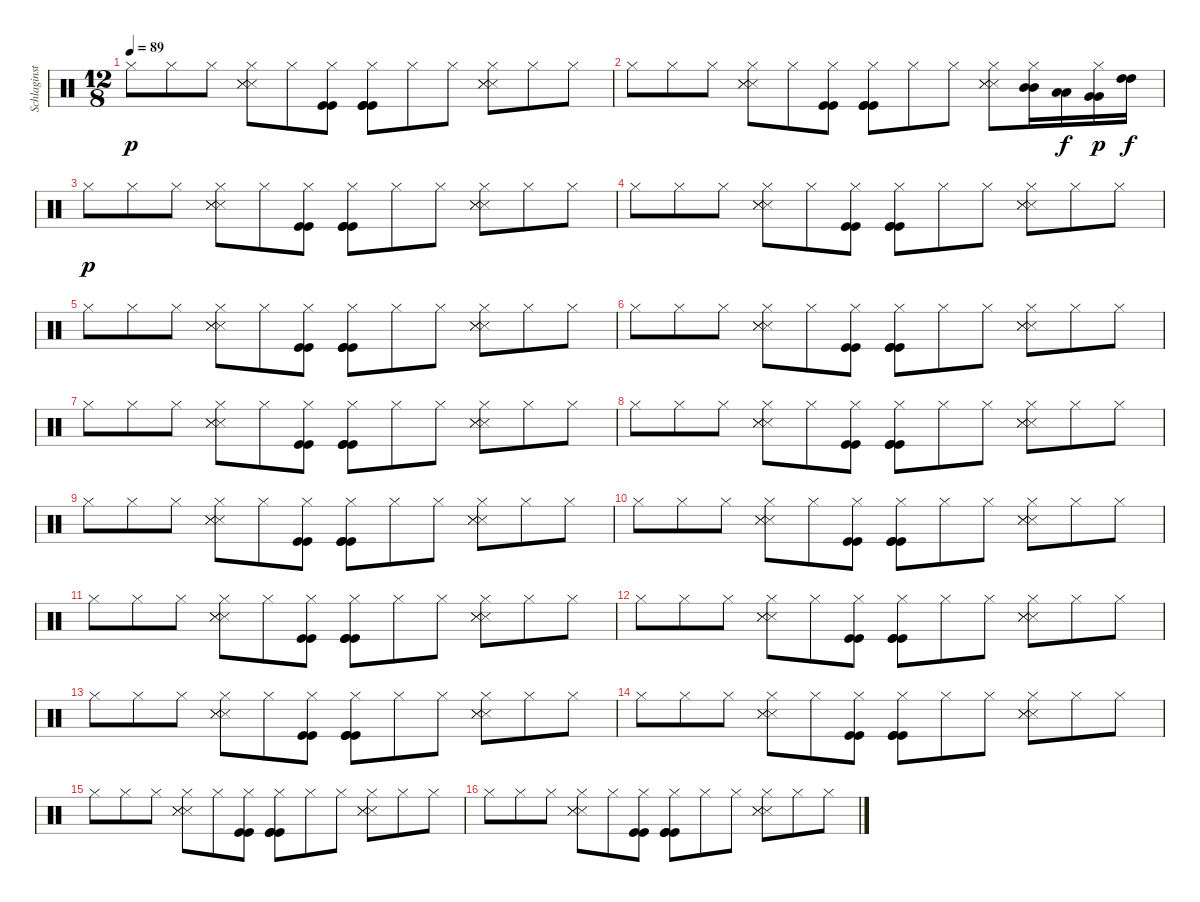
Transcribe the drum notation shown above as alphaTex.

\track ("Schlaginstrumente - Auswahl" "Schlaginst") {instrument percussion}
\staff {score}
\articulation defaults
\ts (12 8)
\tempo 89
\clef neutral
\ks c "Hi-Hat (closed)".8{dy p} "Hi-Hat (closed)".8 "Hi-Hat (closed)".8
("Hi-Hat (closed)" "Snare (side stick) 3" "Snare (side stick) 3" "Snare (side stick) 3").8 "Hi-Hat (closed)".8 ("Hi-Hat (closed)" "Kick (hit)" "Kick (hit)").8 ("Hi-Hat (closed)" "Kick (hit)" "Kick (hit)" "Kick (hit)").8 "Hi-Hat (closed)".8 "Hi-Hat (closed)".8 ("Hi-Hat (closed)" "Snare (side stick) 3" "Snare (side stick) 3" "Snare (side stick) 3").8 "Hi-Hat (closed)".8 "Hi-Hat (closed)".8 |
"Hi-Hat (closed)".8 "Hi-Hat (closed)".8 "Hi-Hat (closed)".8 ("Hi-Hat (closed)" "Snare (side stick) 3" "Snare (side stick) 3" "Snare (side stick) 3").8 "Hi-Hat (closed)".8 ("Hi-Hat (closed)" "Kick (hit)" "Kick (hit)").8 ("Hi-Hat (closed)" "Kick (hit)" "Kick (hit)" "Kick (hit)").8 "Hi-Hat (closed)".8 "Hi-Hat (closed)".8 ("Hi-Hat (closed)" "Snare (side stick) 3" "Snare (side stick) 3" "Snare (side stick) 3").8 ("Hi-Hat (closed)" "Mid Tom (hit)" "Mid Tom (hit)").16 ("Low Tom (hit)" "Low Tom (hit)").16{dy f} ("Hi-Hat (closed)" "Very Low Tom (hit)" "Very Low Tom (hit)").16{dy p} ("High Tom (hit)" "High Tom (hit)").16{dy f} |
"Hi-Hat (closed)".8{dy p} "Hi-Hat (closed)".8 "Hi-Hat (closed)".8 ("Hi-Hat (closed)" "Snare (side stick) 3" "Snare (side stick) 3" "Snare (side stick) 3").8 "Hi-Hat (closed)".8 ("Hi-Hat (closed)" "Kick (hit)" "Kick (hit)").8 ("Hi-Hat (closed)" "Kick (hit)" "Kick (hit)" "Kick (hit)").8 "Hi-Hat (closed)".8 "Hi-Hat (closed)".8 ("Hi-Hat (closed)" "Snare (side stick) 3" "Snare (side stick) 3" "Snare (side stick) 3").8 "Hi-Hat (closed)".8 "Hi-Hat (closed)".8 |
"Hi-Hat (closed)".8 "Hi-Hat (closed)".8 "Hi-Hat (closed)".8 ("Hi-Hat (closed)" "Snare (side stick) 3" "Snare (side stick) 3" "Snare (side stick) 3").8 "Hi-Hat (closed)".8 ("Hi-Hat (closed)" "Kick (hit)" "Kick (hit)").8 ("Hi-Hat (closed)" "Kick (hit)" "Kick (hit)" "Kick (hit)").8 "Hi-Hat (closed)".8 "Hi-Hat (closed)".8 ("Hi-Hat (closed)" "Snare (side stick) 3" "Snare (side stick) 3" "Snare (side stick) 3").8 "Hi-Hat (closed)".8 "Hi-Hat (closed)".8 |
"Hi-Hat (closed)".8 "Hi-Hat (closed)".8 "Hi-Hat (closed)".8 ("Hi-Hat (closed)" "Snare (side stick) 3" "Snare (side stick) 3" "Snare (side stick) 3").8 "Hi-Hat (closed)".8 ("Hi-Hat (closed)" "Kick (hit)" "Kick (hit)").8 ("Hi-Hat (closed)" "Kick (hit)" "Kick (hit)" "Kick (hit)").8 "Hi-Hat (closed)".8 "Hi-Hat (closed)".8 ("Hi-Hat (closed)" "Snare (side stick) 3" "Snare (side stick) 3" "Snare (side stick) 3").8 "Hi-Hat (closed)".8 "Hi-Hat (closed)".8 |
"Hi-Hat (closed)".8 "Hi-Hat (closed)".8 "Hi-Hat (closed)".8 ("Hi-Hat (closed)" "Snare (side stick) 3" "Snare (side stick) 3" "Snare (side stick) 3").8 "Hi-Hat (closed)".8 ("Hi-Hat (closed)" "Kick (hit)" "Kick (hit)").8 ("Hi-Hat (closed)" "Kick (hit)" "Kick (hit)" "Kick (hit)").8 "Hi-Hat (closed)".8 "Hi-Hat (closed)".8 ("Hi-Hat (closed)" "Snare (side stick) 3" "Snare (side stick) 3" "Snare (side stick) 3").8 "Hi-Hat (closed)".8 "Hi-Hat (closed)".8 |
"Hi-Hat (closed)".8 "Hi-Hat (closed)".8 "Hi-Hat (closed)".8 ("Hi-Hat (closed)" "Snare (side stick) 3" "Snare (side stick) 3" "Snare (side stick) 3").8 "Hi-Hat (closed)".8 ("Hi-Hat (closed)" "Kick (hit)" "Kick (hit)").8 ("Hi-Hat (closed)" "Kick (hit)" "Kick (hit)" "Kick (hit)").8 "Hi-Hat (closed)".8 "Hi-Hat (closed)".8 ("Hi-Hat (closed)" "Snare (side stick) 3" "Snare (side stick) 3" "Snare (side stick) 3").8 "Hi-Hat (closed)".8 "Hi-Hat (closed)".8 |
"Hi-Hat (closed)".8 "Hi-Hat (closed)".8 "Hi-Hat (closed)".8 ("Hi-Hat (closed)" "Snare (side stick) 3" "Snare (side stick) 3" "Snare (side stick) 3").8 "Hi-Hat (closed)".8 ("Hi-Hat (closed)" "Kick (hit)" "Kick (hit)").8 ("Hi-Hat (closed)" "Kick (hit)" "Kick (hit)" "Kick (hit)").8 "Hi-Hat (closed)".8 "Hi-Hat (closed)".8 ("Hi-Hat (closed)" "Snare (side stick) 3" "Snare (side stick) 3" "Snare (side stick) 3").8 "Hi-Hat (closed)".8 "Hi-Hat (closed)".8 |
"Hi-Hat (closed)".8 "Hi-Hat (closed)".8 "Hi-Hat (closed)".8 ("Hi-Hat (closed)" "Snare (side stick) 3" "Snare (side stick) 3" "Snare (side stick) 3").8 "Hi-Hat (closed)".8 ("Hi-Hat (closed)" "Kick (hit)" "Kick (hit)").8 ("Hi-Hat (closed)" "Kick (hit)" "Kick (hit)" "Kick (hit)").8 "Hi-Hat (closed)".8 "Hi-Hat (closed)".8 ("Hi-Hat (closed)" "Snare (side stick) 3" "Snare (side stick) 3" "Snare (side stick) 3").8 "Hi-Hat (closed)".8 "Hi-Hat (closed)".8 |
"Hi-Hat (closed)".8 "Hi-Hat (closed)".8 "Hi-Hat (closed)".8 ("Hi-Hat (closed)" "Snare (side stick) 3" "Snare (side stick) 3" "Snare (side stick) 3").8 "Hi-Hat (closed)".8 ("Hi-Hat (closed)" "Kick (hit)" "Kick (hit)").8 ("Hi-Hat (closed)" "Kick (hit)" "Kick (hit)" "Kick (hit)").8 "Hi-Hat (closed)".8 "Hi-Hat (closed)".8 ("Hi-Hat (closed)" "Snare (side stick) 3" "Snare (side stick) 3" "Snare (side stick) 3").8 "Hi-Hat (closed)".8 "Hi-Hat (closed)".8 |
"Hi-Hat (closed)".8 "Hi-Hat (closed)".8 "Hi-Hat (closed)".8 ("Hi-Hat (closed)" "Snare (side stick) 3" "Snare (side stick) 3" "Snare (side stick) 3").8 "Hi-Hat (closed)".8 ("Hi-Hat (closed)" "Kick (hit)" "Kick (hit)").8 ("Hi-Hat (closed)" "Kick (hit)" "Kick (hit)" "Kick (hit)").8 "Hi-Hat (closed)".8 "Hi-Hat (closed)".8 ("Hi-Hat (closed)" "Snare (side stick) 3" "Snare (side stick) 3" "Snare (side stick) 3").8 "Hi-Hat (closed)".8 "Hi-Hat (closed)".8 |
"Hi-Hat (closed)".8 "Hi-Hat (closed)".8 "Hi-Hat (closed)".8 ("Hi-Hat (closed)" "Snare (side stick) 3" "Snare (side stick) 3" "Snare (side stick) 3").8 "Hi-Hat (closed)".8 ("Hi-Hat (closed)" "Kick (hit)" "Kick (hit)").8 ("Hi-Hat (closed)" "Kick (hit)" "Kick (hit)" "Kick (hit)").8 "Hi-Hat (closed)".8 "Hi-Hat (closed)".8 ("Hi-Hat (closed)" "Snare (side stick) 3" "Snare (side stick) 3" "Snare (side stick) 3").8 "Hi-Hat (closed)".8 "Hi-Hat (closed)".8 |
"Hi-Hat (closed)".8 "Hi-Hat (closed)".8 "Hi-Hat (closed)".8 ("Hi-Hat (closed)" "Snare (side stick) 3" "Snare (side stick) 3" "Snare (side stick) 3").8 "Hi-Hat (closed)".8 ("Hi-Hat (closed)" "Kick (hit)" "Kick (hit)").8 ("Hi-Hat (closed)" "Kick (hit)" "Kick (hit)" "Kick (hit)").8 "Hi-Hat (closed)".8 "Hi-Hat (closed)".8 ("Hi-Hat (closed)" "Snare (side stick) 3" "Snare (side stick) 3" "Snare (side stick) 3").8 "Hi-Hat (closed)".8 "Hi-Hat (closed)".8 |
"Hi-Hat (closed)".8 "Hi-Hat (closed)".8 "Hi-Hat (closed)".8 ("Hi-Hat (closed)" "Snare (side stick) 3" "Snare (side stick) 3" "Snare (side stick) 3").8 "Hi-Hat (closed)".8 ("Hi-Hat (closed)" "Kick (hit)" "Kick (hit)").8 ("Hi-Hat (closed)" "Kick (hit)" "Kick (hit)" "Kick (hit)").8 "Hi-Hat (closed)".8 "Hi-Hat (closed)".8 ("Hi-Hat (closed)" "Snare (side stick) 3" "Snare (side stick) 3" "Snare (side stick) 3").8 "Hi-Hat (closed)".8 "Hi-Hat (closed)".8 |
"Hi-Hat (closed)".8 "Hi-Hat (closed)".8 "Hi-Hat (closed)".8 ("Hi-Hat (closed)" "Snare (side stick) 3" "Snare (side stick) 3" "Snare (side stick) 3").8 "Hi-Hat (closed)".8 ("Hi-Hat (closed)" "Kick (hit)" "Kick (hit)").8 ("Hi-Hat (closed)" "Kick (hit)" "Kick (hit)" "Kick (hit)").8 "Hi-Hat (closed)".8 "Hi-Hat (closed)".8 ("Hi-Hat (closed)" "Snare (side stick) 3" "Snare (side stick) 3" "Snare (side stick) 3").8 "Hi-Hat (closed)".8 "Hi-Hat (closed)".8 |
"Hi-Hat (closed)".8 "Hi-Hat (closed)".8 "Hi-Hat (closed)".8 ("Hi-Hat (closed)" "Snare (side stick) 3" "Snare (side stick) 3" "Snare (side stick) 3").8 "Hi-Hat (closed)".8 ("Hi-Hat (closed)" "Kick (hit)" "Kick (hit)").8 ("Hi-Hat (closed)" "Kick (hit)" "Kick (hit)" "Kick (hit)").8 "Hi-Hat (closed)".8 "Hi-Hat (closed)".8 ("Hi-Hat (closed)" "Snare (side stick) 3" "Snare (side stick) 3" "Snare (side stick) 3").8 "Hi-Hat (closed)".8 "Hi-Hat (closed)".8
